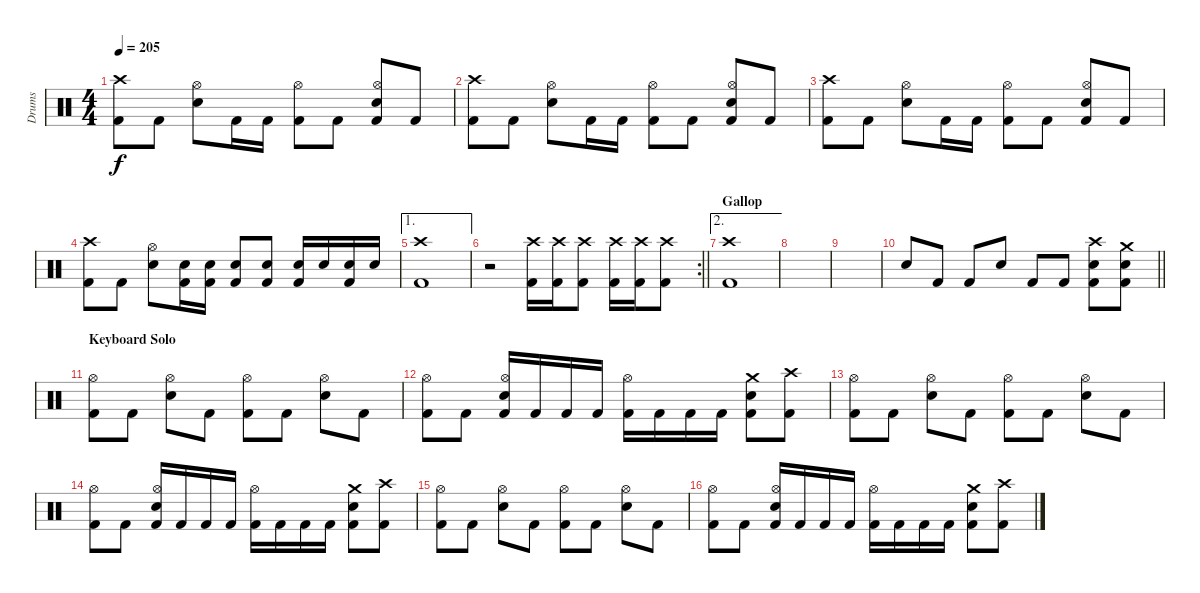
\track ("Drums" "Drums") {instrument percussion}
\staff {score}
\articulation defaults
\ts (4 4)
\tempo 205
\clef neutral
\ks c
("Kick (hit) 2" "Crash high (hit)").8{dy f} "Kick (hit) 2".8 ("Hi-Hat (open)" "Snare (hit) 2").8 "Kick (hit) 2".16 "Kick (hit) 2".16 ("Kick (hit) 2" "Hi-Hat (open)").8 "Kick (hit) 2".8 ("Kick (hit) 2" "Hi-Hat (open)" "Snare (hit) 2").8 "Kick (hit) 2".8 |
("Kick (hit) 2" "Crash high (hit)").8 "Kick (hit) 2".8 ("Hi-Hat (open)" "Snare (hit) 2").8 "Kick (hit) 2".16 "Kick (hit) 2".16 ("Kick (hit) 2" "Hi-Hat (open)").8 "Kick (hit) 2".8 ("Kick (hit) 2" "Hi-Hat (open)" "Snare (hit) 2").8 "Kick (hit) 2".8 |
("Kick (hit) 2" "Crash high (hit)").8 "Kick (hit) 2".8 ("Hi-Hat (open)" "Snare (hit) 2").8 "Kick (hit) 2".16 "Kick (hit) 2".16 ("Kick (hit) 2" "Hi-Hat (open)").8 "Kick (hit) 2".8 ("Kick (hit) 2" "Hi-Hat (open)" "Snare (hit) 2").8 "Kick (hit) 2".8 |
("Kick (hit) 2" "Crash high (hit)").8 "Kick (hit) 2".8 ("Hi-Hat (open)" "Snare (hit) 2").8 ("Kick (hit) 2" "Snare (hit) 2").16 ("Kick (hit) 2" "Snare (hit) 2").16 ("Kick (hit) 2" "Snare (hit) 2").8 ("Kick (hit) 2" "Snare (hit) 2").8 ("Kick (hit) 2" "Snare (hit) 2").16 "Snare (hit) 2".16 ("Kick (hit) 2" "Snare (hit) 2").16 "Snare (hit) 2".16 |
\ae 1
("Crash high (hit)" "Kick (hit) 2").1 |
\rc 2
\barLineRight lightlight
r.2 ("Crash high (hit)" "Kick (hit) 2").16 ("Crash high (hit)" "Kick (hit) 2").16 ("Crash high (hit)" "Kick (hit) 2").8 ("Crash high (hit)" "Kick (hit) 2").16 ("Crash high (hit)" "Kick (hit) 2").16 ("Crash high (hit)" "Kick (hit) 2").8 |
\ae 2
\section ("" "Gallop")
("Crash high (hit)" "Kick (hit) 2").1 |
|
|
\barLineRight lightlight "Snare (hit) 2".8 "Kick (hit) 2".8 "Kick (hit) 2".8 "Snare (hit) 2".8 "Kick (hit) 2".8 "Kick (hit) 2".8
("Kick (hit) 2" "Snare (hit) 2" "Crash high (hit)").8 ("Kick (hit) 2" "Snare (hit) 2" "Crash medium (hit)").8 |
\section ("" "Keyboard Solo")
("Kick (hit) 2" "Hi-Hat (open)").8 "Kick (hit) 2".8 ("Snare (hit) 2" "Hi-Hat (open)").8 "Kick (hit) 2".8 ("Kick (hit) 2" "Hi-Hat (open)").8 "Kick (hit) 2".8 ("Snare (hit) 2" "Hi-Hat (open)").8 "Kick (hit) 2".8 |
("Kick (hit) 2" "Hi-Hat (open)").8 "Kick (hit) 2".8 ("Kick (hit) 2" "Snare (hit) 2" "Hi-Hat (open)").16 "Kick (hit) 2".16 "Kick (hit) 2".16 "Kick (hit) 2".16 ("Kick (hit) 2" "Hi-Hat (open)").16 "Kick (hit) 2".16 "Kick (hit) 2".16 "Kick (hit) 2".16 ("Kick (hit) 2" "Snare (hit) 2" "Crash medium (hit)").8 ("Kick (hit) 2" "Crash high (hit)").8 |
("Kick (hit) 2" "Hi-Hat (open)").8 "Kick (hit) 2".8 ("Snare (hit) 2" "Hi-Hat (open)").8 "Kick (hit) 2".8 ("Kick (hit) 2" "Hi-Hat (open)").8 "Kick (hit) 2".8 ("Snare (hit) 2" "Hi-Hat (open)").8 "Kick (hit) 2".8 |
("Kick (hit) 2" "Hi-Hat (open)").8 "Kick (hit) 2".8 ("Kick (hit) 2" "Snare (hit) 2" "Hi-Hat (open)").16 "Kick (hit) 2".16 "Kick (hit) 2".16 "Kick (hit) 2".16 ("Kick (hit) 2" "Hi-Hat (open)").16 "Kick (hit) 2".16 "Kick (hit) 2".16 "Kick (hit) 2".16 ("Kick (hit) 2" "Snare (hit) 2" "Crash medium (hit)").8 ("Kick (hit) 2" "Crash high (hit)").8 |
("Kick (hit) 2" "Hi-Hat (open)").8 "Kick (hit) 2".8 ("Snare (hit) 2" "Hi-Hat (open)").8 "Kick (hit) 2".8 ("Kick (hit) 2" "Hi-Hat (open)").8 "Kick (hit) 2".8 ("Snare (hit) 2" "Hi-Hat (open)").8 "Kick (hit) 2".8 |
("Kick (hit) 2" "Hi-Hat (open)").8 "Kick (hit) 2".8 ("Kick (hit) 2" "Snare (hit) 2" "Hi-Hat (open)").16 "Kick (hit) 2".16 "Kick (hit) 2".16 "Kick (hit) 2".16 ("Kick (hit) 2" "Hi-Hat (open)").16 "Kick (hit) 2".16 "Kick (hit) 2".16 "Kick (hit) 2".16 ("Kick (hit) 2" "Snare (hit) 2" "Crash medium (hit)").8 ("Kick (hit) 2" "Crash high (hit)").8
